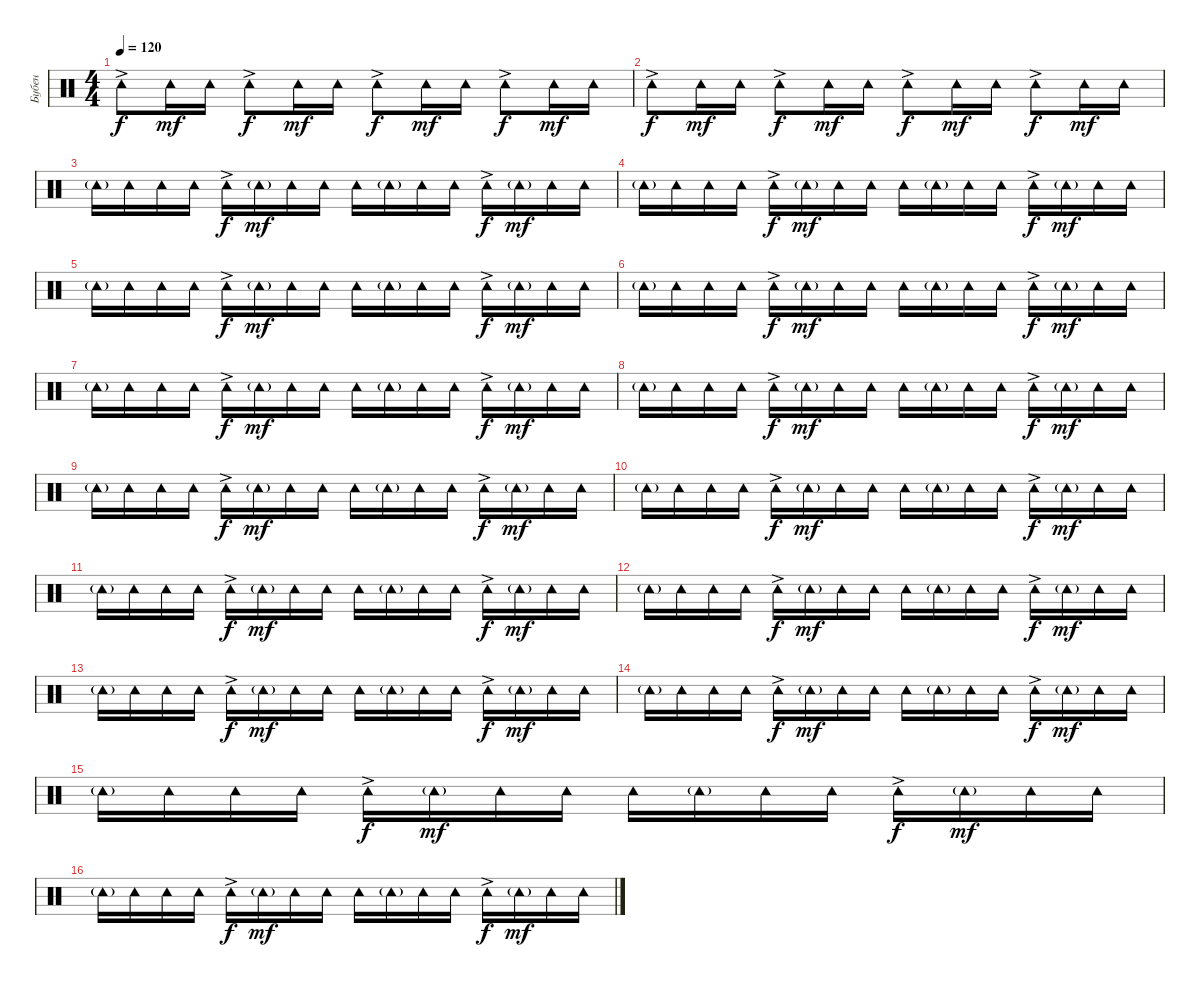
\track ("Бубен" "Бубен") {instrument percussion}
\staff {score}
\articulation defaults
\ts (4 4)
\tempo 120
\clef neutral
\ks c "Tambourine (hit)"{ac}.8{dy f} "Tambourine (hit)".16{dy mf} "Tambourine (hit)".16 "Tambourine (hit)"{ac}.8{dy f} "Tambourine (hit)".16{dy mf} "Tambourine (hit)".16 "Tambourine (hit)"{ac}.8{dy f} "Tambourine (hit)".16{dy mf} "Tambourine (hit)".16 "Tambourine (hit)"{ac}.8{dy f} "Tambourine (hit)".16{dy mf} "Tambourine (hit)".16
|
"Tambourine (hit)"{ac}.8{dy f} "Tambourine (hit)".16{dy mf} "Tambourine (hit)".16 "Tambourine (hit)"{ac}.8{dy f} "Tambourine (hit)".16{dy mf} "Tambourine (hit)".16 "Tambourine (hit)"{ac}.8{dy f} "Tambourine (hit)".16{dy mf} "Tambourine (hit)".16 "Tambourine (hit)"{ac}.8{dy f} "Tambourine (hit)".16{dy mf} "Tambourine (hit)".16 |
"Tambourine (hit)"{g}.16 "Tambourine (hit)".16 "Tambourine (hit)".16 "Tambourine (hit)".16 "Tambourine (hit)"{ac}.16{dy f} "Tambourine (hit)"{g}.16{dy mf} "Tambourine (hit)".16 "Tambourine (hit)".16 "Tambourine (hit)".16 "Tambourine (hit)"{g}.16 "Tambourine (hit)".16 "Tambourine (hit)".16 "Tambourine (hit)"{ac}.16{dy f} "Tambourine (hit)"{g}.16{dy mf} "Tambourine (hit)".16 "Tambourine (hit)".16 |
"Tambourine (hit)"{g}.16 "Tambourine (hit)".16 "Tambourine (hit)".16 "Tambourine (hit)".16 "Tambourine (hit)"{ac}.16{dy f} "Tambourine (hit)"{g}.16{dy mf} "Tambourine (hit)".16 "Tambourine (hit)".16 "Tambourine (hit)".16 "Tambourine (hit)"{g}.16 "Tambourine (hit)".16 "Tambourine (hit)".16 "Tambourine (hit)"{ac}.16{dy f} "Tambourine (hit)"{g}.16{dy mf} "Tambourine (hit)".16 "Tambourine (hit)".16 |
"Tambourine (hit)"{g}.16 "Tambourine (hit)".16 "Tambourine (hit)".16 "Tambourine (hit)".16 "Tambourine (hit)"{ac}.16{dy f} "Tambourine (hit)"{g}.16{dy mf} "Tambourine (hit)".16 "Tambourine (hit)".16 "Tambourine (hit)".16 "Tambourine (hit)"{g}.16 "Tambourine (hit)".16 "Tambourine (hit)".16 "Tambourine (hit)"{ac}.16{dy f} "Tambourine (hit)"{g}.16{dy mf} "Tambourine (hit)".16 "Tambourine (hit)".16 |
"Tambourine (hit)"{g}.16 "Tambourine (hit)".16 "Tambourine (hit)".16 "Tambourine (hit)".16 "Tambourine (hit)"{ac}.16{dy f} "Tambourine (hit)"{g}.16{dy mf} "Tambourine (hit)".16 "Tambourine (hit)".16 "Tambourine (hit)".16 "Tambourine (hit)"{g}.16 "Tambourine (hit)".16 "Tambourine (hit)".16 "Tambourine (hit)"{ac}.16{dy f} "Tambourine (hit)"{g}.16{dy mf} "Tambourine (hit)".16 "Tambourine (hit)".16 |
"Tambourine (hit)"{g}.16 "Tambourine (hit)".16 "Tambourine (hit)".16 "Tambourine (hit)".16 "Tambourine (hit)"{ac}.16{dy f} "Tambourine (hit)"{g}.16{dy mf} "Tambourine (hit)".16 "Tambourine (hit)".16 "Tambourine (hit)".16 "Tambourine (hit)"{g}.16 "Tambourine (hit)".16 "Tambourine (hit)".16 "Tambourine (hit)"{ac}.16{dy f} "Tambourine (hit)"{g}.16{dy mf} "Tambourine (hit)".16 "Tambourine (hit)".16 |
"Tambourine (hit)"{g}.16 "Tambourine (hit)".16 "Tambourine (hit)".16 "Tambourine (hit)".16 "Tambourine (hit)"{ac}.16{dy f} "Tambourine (hit)"{g}.16{dy mf} "Tambourine (hit)".16 "Tambourine (hit)".16 "Tambourine (hit)".16 "Tambourine (hit)"{g}.16 "Tambourine (hit)".16 "Tambourine (hit)".16 "Tambourine (hit)"{ac}.16{dy f} "Tambourine (hit)"{g}.16{dy mf} "Tambourine (hit)".16 "Tambourine (hit)".16 |
"Tambourine (hit)"{g}.16 "Tambourine (hit)".16 "Tambourine (hit)".16 "Tambourine (hit)".16 "Tambourine (hit)"{ac}.16{dy f} "Tambourine (hit)"{g}.16{dy mf} "Tambourine (hit)".16 "Tambourine (hit)".16 "Tambourine (hit)".16 "Tambourine (hit)"{g}.16 "Tambourine (hit)".16 "Tambourine (hit)".16 "Tambourine (hit)"{ac}.16{dy f} "Tambourine (hit)"{g}.16{dy mf} "Tambourine (hit)".16 "Tambourine (hit)".16 |
"Tambourine (hit)"{g}.16 "Tambourine (hit)".16 "Tambourine (hit)".16 "Tambourine (hit)".16 "Tambourine (hit)"{ac}.16{dy f} "Tambourine (hit)"{g}.16{dy mf} "Tambourine (hit)".16 "Tambourine (hit)".16 "Tambourine (hit)".16 "Tambourine (hit)"{g}.16 "Tambourine (hit)".16 "Tambourine (hit)".16 "Tambourine (hit)"{ac}.16{dy f} "Tambourine (hit)"{g}.16{dy mf} "Tambourine (hit)".16 "Tambourine (hit)".16 |
"Tambourine (hit)"{g}.16 "Tambourine (hit)".16 "Tambourine (hit)".16 "Tambourine (hit)".16 "Tambourine (hit)"{ac}.16{dy f} "Tambourine (hit)"{g}.16{dy mf} "Tambourine (hit)".16 "Tambourine (hit)".16 "Tambourine (hit)".16 "Tambourine (hit)"{g}.16 "Tambourine (hit)".16 "Tambourine (hit)".16 "Tambourine (hit)"{ac}.16{dy f} "Tambourine (hit)"{g}.16{dy mf} "Tambourine (hit)".16 "Tambourine (hit)".16 |
"Tambourine (hit)"{g}.16 "Tambourine (hit)".16 "Tambourine (hit)".16 "Tambourine (hit)".16 "Tambourine (hit)"{ac}.16{dy f} "Tambourine (hit)"{g}.16{dy mf} "Tambourine (hit)".16 "Tambourine (hit)".16 "Tambourine (hit)".16 "Tambourine (hit)"{g}.16 "Tambourine (hit)".16 "Tambourine (hit)".16 "Tambourine (hit)"{ac}.16{dy f} "Tambourine (hit)"{g}.16{dy mf} "Tambourine (hit)".16 "Tambourine (hit)".16 |
"Tambourine (hit)"{g}.16 "Tambourine (hit)".16 "Tambourine (hit)".16 "Tambourine (hit)".16 "Tambourine (hit)"{ac}.16{dy f} "Tambourine (hit)"{g}.16{dy mf} "Tambourine (hit)".16 "Tambourine (hit)".16 "Tambourine (hit)".16 "Tambourine (hit)"{g}.16 "Tambourine (hit)".16 "Tambourine (hit)".16 "Tambourine (hit)"{ac}.16{dy f} "Tambourine (hit)"{g}.16{dy mf} "Tambourine (hit)".16 "Tambourine (hit)".16 |
"Tambourine (hit)"{g}.16 "Tambourine (hit)".16 "Tambourine (hit)".16 "Tambourine (hit)".16 "Tambourine (hit)"{ac}.16{dy f} "Tambourine (hit)"{g}.16{dy mf} "Tambourine (hit)".16 "Tambourine (hit)".16 "Tambourine (hit)".16 "Tambourine (hit)"{g}.16 "Tambourine (hit)".16 "Tambourine (hit)".16 "Tambourine (hit)"{ac}.16{dy f} "Tambourine (hit)"{g}.16{dy mf} "Tambourine (hit)".16 "Tambourine (hit)".16 |
"Tambourine (hit)"{g}.16 "Tambourine (hit)".16 "Tambourine (hit)".16 "Tambourine (hit)".16 "Tambourine (hit)"{ac}.16{dy f} "Tambourine (hit)"{g}.16{dy mf} "Tambourine (hit)".16 "Tambourine (hit)".16 "Tambourine (hit)".16 "Tambourine (hit)"{g}.16 "Tambourine (hit)".16 "Tambourine (hit)".16 "Tambourine (hit)"{ac}.16{dy f} "Tambourine (hit)"{g}.16{dy mf} "Tambourine (hit)".16 "Tambourine (hit)".16 |
"Tambourine (hit)"{g}.16 "Tambourine (hit)".16 "Tambourine (hit)".16 "Tambourine (hit)".16 "Tambourine (hit)"{ac}.16{dy f} "Tambourine (hit)"{g}.16{dy mf} "Tambourine (hit)".16 "Tambourine (hit)".16 "Tambourine (hit)".16 "Tambourine (hit)"{g}.16 "Tambourine (hit)".16 "Tambourine (hit)".16 "Tambourine (hit)"{ac}.16{dy f} "Tambourine (hit)"{g}.16{dy mf} "Tambourine (hit)".16 "Tambourine (hit)".16
